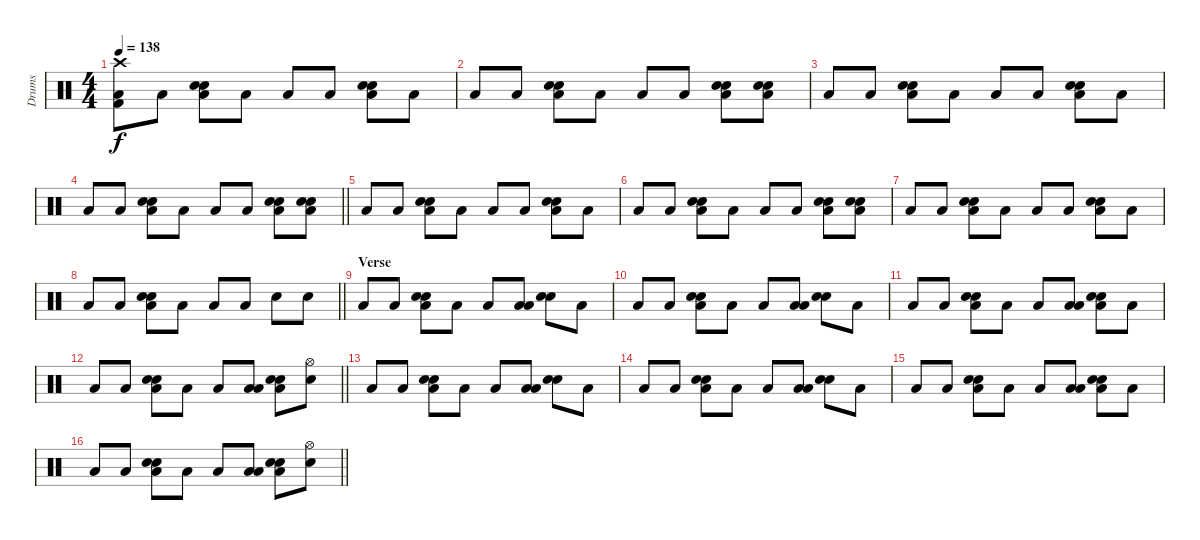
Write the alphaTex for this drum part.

\track ("Drums" "Drums") {instrument percussion}
\staff {score}
\articulation defaults
\ts (4 4)
\tempo 138
\clef neutral
\ks c
("Crash high (hit)" "Low Floor Tom (hit)" "Kick (hit) 2").8{dy f} "Low Floor Tom (hit)".8 ("Snare (hit) 2" "Hand Clap (hit)" "Low Floor Tom (hit)").8 "Low Floor Tom (hit)".8 "Low Floor Tom (hit)".8 "Low Floor Tom (hit)".8 ("Snare (hit) 2" "Hand Clap (hit)" "Low Floor Tom (hit)").8 "Low Floor Tom (hit)".8 |
"Low Floor Tom (hit)".8 "Low Floor Tom (hit)".8 ("Snare (hit) 2" "Hand Clap (hit)" "Low Floor Tom (hit)").8 "Low Floor Tom (hit)".8 "Low Floor Tom (hit)".8 "Low Floor Tom (hit)".8 ("Snare (hit) 2" "Hand Clap (hit)" "Low Floor Tom (hit)").8 ("Snare (hit) 2" "Hand Clap (hit)" "Low Floor Tom (hit)").8 |
"Low Floor Tom (hit)".8 "Low Floor Tom (hit)".8 ("Snare (hit) 2" "Hand Clap (hit)" "Low Floor Tom (hit)").8 "Low Floor Tom (hit)".8 "Low Floor Tom (hit)".8 "Low Floor Tom (hit)".8 ("Snare (hit) 2" "Hand Clap (hit)" "Low Floor Tom (hit)").8 "Low Floor Tom (hit)".8 |
\barLineRight lightlight "Low Floor Tom (hit)".8 "Low Floor Tom (hit)".8
("Snare (hit) 2" "Hand Clap (hit)" "Low Floor Tom (hit)").8 "Low Floor Tom (hit)".8 "Low Floor Tom (hit)".8 "Low Floor Tom (hit)".8 ("Snare (hit) 2" "Hand Clap (hit)" "Low Floor Tom (hit)").8 ("Snare (hit) 2" "Hand Clap (hit)" "Low Floor Tom (hit)").8 |
"Low Floor Tom (hit)".8 "Low Floor Tom (hit)".8 ("Snare (hit) 2" "Hand Clap (hit)" "Low Floor Tom (hit)").8 "Low Floor Tom (hit)".8 "Low Floor Tom (hit)".8 "Low Floor Tom (hit)".8 ("Snare (hit) 2" "Hand Clap (hit)" "Low Floor Tom (hit)").8 "Low Floor Tom (hit)".8 |
"Low Floor Tom (hit)".8 "Low Floor Tom (hit)".8 ("Snare (hit) 2" "Hand Clap (hit)" "Low Floor Tom (hit)").8 "Low Floor Tom (hit)".8 "Low Floor Tom (hit)".8 "Low Floor Tom (hit)".8 ("Snare (hit) 2" "Hand Clap (hit)" "Low Floor Tom (hit)").8 ("Snare (hit) 2" "Hand Clap (hit)" "Low Floor Tom (hit)").8 |
"Low Floor Tom (hit)".8 "Low Floor Tom (hit)".8 ("Snare (hit) 2" "Hand Clap (hit)" "Low Floor Tom (hit)").8 "Low Floor Tom (hit)".8 "Low Floor Tom (hit)".8 "Low Floor Tom (hit)".8 ("Snare (hit) 2" "Hand Clap (hit)" "Low Floor Tom (hit)").8 "Low Floor Tom (hit)".8 |
\barLineRight lightlight "Low Floor Tom (hit)".8 "Low Floor Tom (hit)".8
("Snare (hit) 2" "Hand Clap (hit)" "Low Floor Tom (hit)").8 "Low Floor Tom (hit)".8 "Low Floor Tom (hit)".8 "Low Tom (hit)".8 "Snare (hit) 2".8 "Snare (hit) 2".8 |
\section ("" "Verse")
"Low Floor Tom (hit)".8 "Low Floor Tom (hit)".8 ("Snare (hit) 2" "Hand Clap (hit)" "Low Floor Tom (hit)").8 "Low Floor Tom (hit)".8 "Low Floor Tom (hit)".8 ("Low Tom (hit)" "Low Floor Tom (hit)").8 ("Snare (hit) 2" "Hand Clap (hit)").8 "Low Floor Tom (hit)".8 |
"Low Floor Tom (hit)".8 "Low Floor Tom (hit)".8 ("Snare (hit) 2" "Hand Clap (hit)" "Low Floor Tom (hit)").8 "Low Floor Tom (hit)".8 "Low Floor Tom (hit)".8 ("Low Tom (hit)" "Low Floor Tom (hit)").8 ("Snare (hit) 2" "Hand Clap (hit)").8 "Low Floor Tom (hit)".8 |
"Low Floor Tom (hit)".8 "Low Floor Tom (hit)".8 ("Snare (hit) 2" "Hand Clap (hit)" "Low Floor Tom (hit)").8 "Low Floor Tom (hit)".8 "Low Floor Tom (hit)".8 ("Low Tom (hit)" "Low Floor Tom (hit)").8 ("Snare (hit) 2" "Hand Clap (hit)" "Low Floor Tom (hit)").8 "Low Floor Tom (hit)".8 |
\barLineRight lightlight "Low Floor Tom (hit)".8 "Low Floor Tom (hit)".8
("Snare (hit) 2" "Hand Clap (hit)" "Low Floor Tom (hit)").8 "Low Floor Tom (hit)".8 "Low Floor Tom (hit)".8 ("Low Tom (hit)" "Low Floor Tom (hit)").8 ("Snare (hit) 2" "Hand Clap (hit)" "Low Floor Tom (hit)").8 ("Hi-Hat (open)" "Snare (hit) 2").8 |
"Low Floor Tom (hit)".8 "Low Floor Tom (hit)".8 ("Snare (hit) 2" "Hand Clap (hit)" "Low Floor Tom (hit)").8 "Low Floor Tom (hit)".8 "Low Floor Tom (hit)".8 ("Low Tom (hit)" "Low Floor Tom (hit)").8 ("Snare (hit) 2" "Hand Clap (hit)").8 "Low Floor Tom (hit)".8 |
"Low Floor Tom (hit)".8 "Low Floor Tom (hit)".8 ("Snare (hit) 2" "Hand Clap (hit)" "Low Floor Tom (hit)").8 "Low Floor Tom (hit)".8 "Low Floor Tom (hit)".8 ("Low Tom (hit)" "Low Floor Tom (hit)").8 ("Snare (hit) 2" "Hand Clap (hit)").8 "Low Floor Tom (hit)".8 |
"Low Floor Tom (hit)".8 "Low Floor Tom (hit)".8 ("Snare (hit) 2" "Hand Clap (hit)" "Low Floor Tom (hit)").8 "Low Floor Tom (hit)".8 "Low Floor Tom (hit)".8 ("Low Tom (hit)" "Low Floor Tom (hit)").8 ("Snare (hit) 2" "Hand Clap (hit)" "Low Floor Tom (hit)").8 "Low Floor Tom (hit)".8 |
\barLineRight lightlight "Low Floor Tom (hit)".8 "Low Floor Tom (hit)".8
("Snare (hit) 2" "Hand Clap (hit)" "Low Floor Tom (hit)").8 "Low Floor Tom (hit)".8 "Low Floor Tom (hit)".8 ("Low Tom (hit)" "Low Floor Tom (hit)").8 ("Snare (hit) 2" "Hand Clap (hit)" "Low Floor Tom (hit)").8 ("Hi-Hat (open)" "Snare (hit) 2").8
